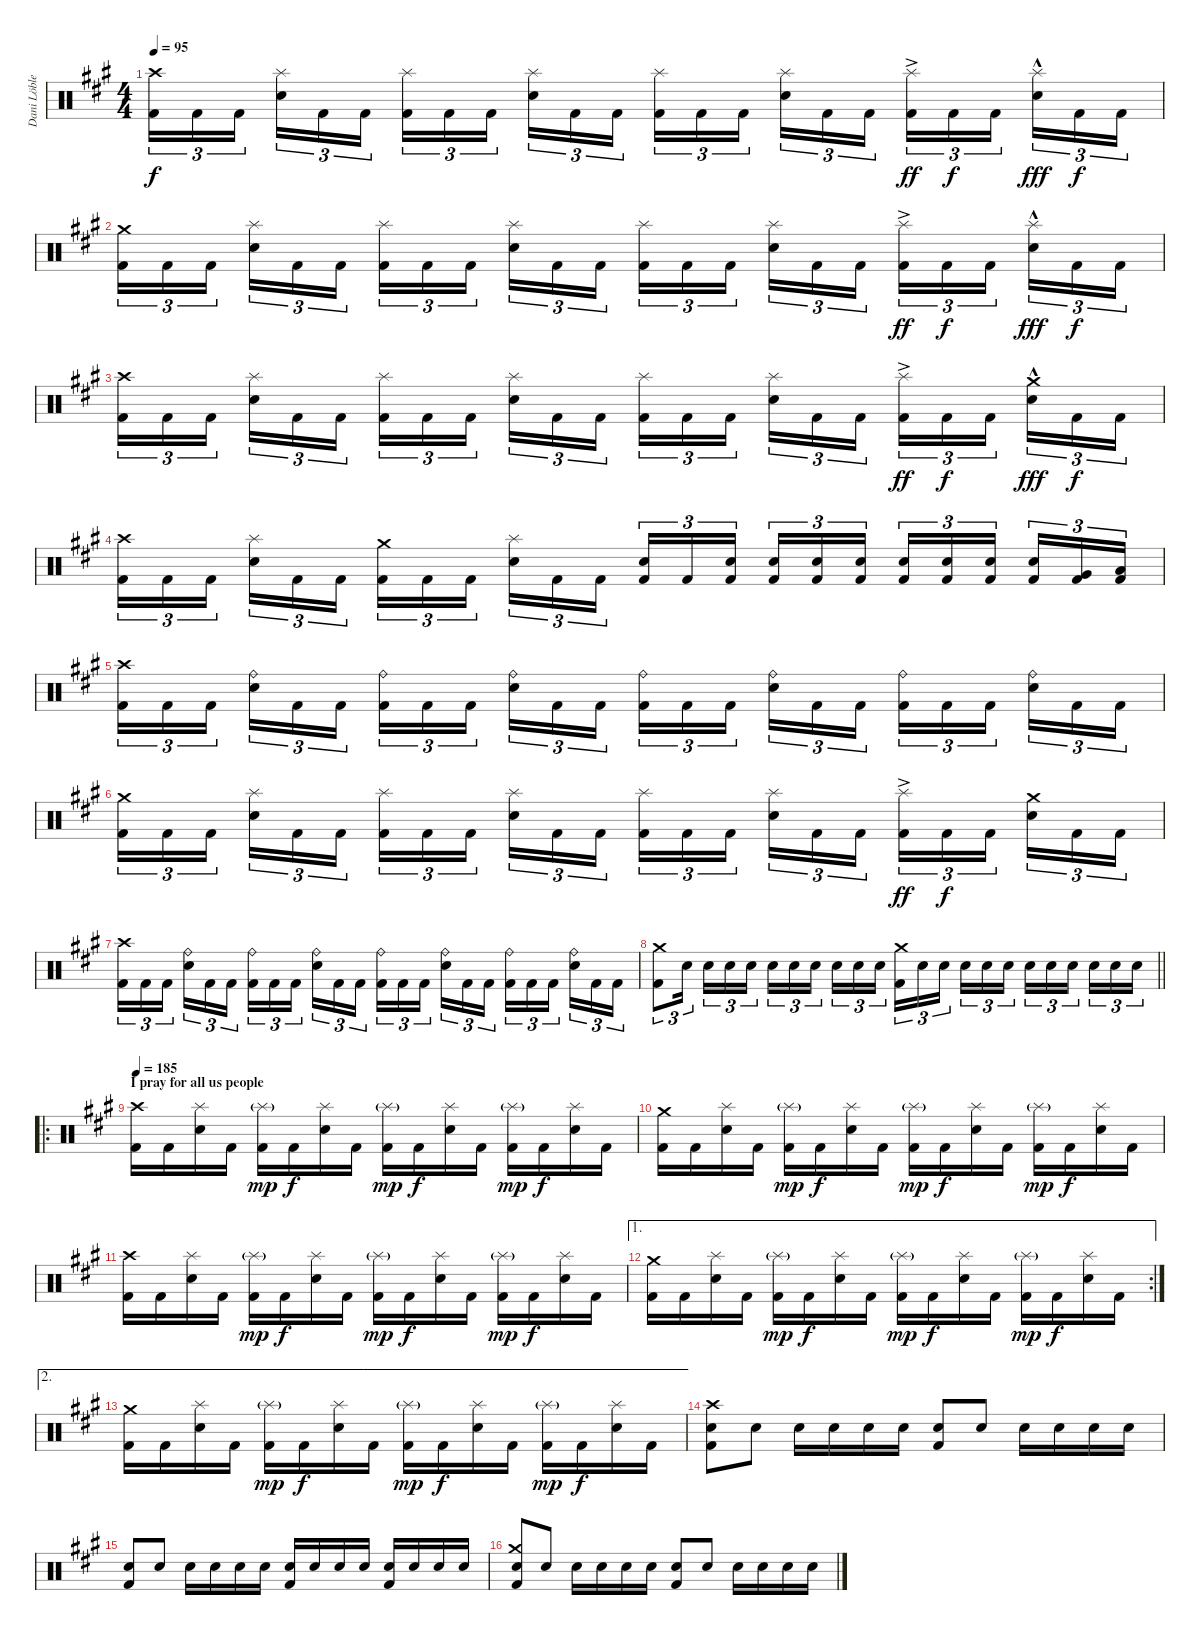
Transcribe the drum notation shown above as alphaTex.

\track ("Dani Löble" "Dani Löble") {instrument percussion}
\staff {score}
\articulation defaults
\ts (4 4)
\tempo 95
\clef neutral
\ks f#minor
("Crash high (hit)" "Kick (hit) 2").16{tu (3 2) dy f} "Kick (hit) 2".16{tu (3 2)} "Kick (hit) 2".16{tu (3 2) beam splitsecondary} ("Splash (hit)" "Snare (hit) 2").16{tu (3 2)} "Kick (hit) 2".16{tu (3 2)} "Kick (hit) 2".16{tu (3 2)} ("Splash (hit)" "Kick (hit) 2").16{tu (3 2)} "Kick (hit) 2".16{tu (3 2)} "Kick (hit) 2".16{tu (3 2) beam splitsecondary} ("Splash (hit)" "Snare (hit) 2").16{tu (3 2)} "Kick (hit) 2".16{tu (3 2)} "Kick (hit) 2".16{tu (3 2)} ("Splash (hit)" "Kick (hit) 2").16{tu (3 2)} "Kick (hit) 2".16{tu (3 2)} "Kick (hit) 2".16{tu (3 2) beam splitsecondary} ("Splash (hit)" "Snare (hit) 2").16{tu (3 2)} "Kick (hit) 2".16{tu (3 2)} "Kick (hit) 2".16{tu (3 2)} ("Splash (hit)"{ac} "Kick (hit) 2").16{tu (3 2) dy ff} "Kick (hit) 2".16{tu (3 2) dy f} "Kick (hit) 2".16{tu (3 2) beam splitsecondary} ("Splash (hit)"{hac} "Snare (hit) 2").16{tu (3 2) dy fff} "Kick (hit) 2".16{tu (3 2) dy f} "Kick (hit) 2".16{tu (3 2)} |
("Crash medium (hit)" "Kick (hit) 2").16{tu (3 2)} "Kick (hit) 2".16{tu (3 2)} "Kick (hit) 2".16{tu (3 2) beam splitsecondary} ("Splash (hit)" "Snare (hit) 2").16{tu (3 2)} "Kick (hit) 2".16{tu (3 2)} "Kick (hit) 2".16{tu (3 2)} ("Splash (hit)" "Kick (hit) 2").16{tu (3 2)} "Kick (hit) 2".16{tu (3 2)} "Kick (hit) 2".16{tu (3 2) beam splitsecondary} ("Splash (hit)" "Snare (hit) 2").16{tu (3 2)} "Kick (hit) 2".16{tu (3 2)} "Kick (hit) 2".16{tu (3 2)} ("Splash (hit)" "Kick (hit) 2").16{tu (3 2)} "Kick (hit) 2".16{tu (3 2)} "Kick (hit) 2".16{tu (3 2) beam splitsecondary} ("Splash (hit)" "Snare (hit) 2").16{tu (3 2)} "Kick (hit) 2".16{tu (3 2)} "Kick (hit) 2".16{tu (3 2)} ("Splash (hit)"{ac} "Kick (hit) 2").16{tu (3 2) dy ff} "Kick (hit) 2".16{tu (3 2) dy f} "Kick (hit) 2".16{tu (3 2) beam splitsecondary} ("Splash (hit)"{hac} "Snare (hit) 2").16{tu (3 2) dy fff} "Kick (hit) 2".16{tu (3 2) dy f} "Kick (hit) 2".16{tu (3 2)} |
("Crash high (hit)" "Kick (hit) 2").16{tu (3 2)} "Kick (hit) 2".16{tu (3 2)} "Kick (hit) 2".16{tu (3 2) beam splitsecondary} ("Splash (hit)" "Snare (hit) 2").16{tu (3 2)} "Kick (hit) 2".16{tu (3 2)} "Kick (hit) 2".16{tu (3 2)} ("Splash (hit)" "Kick (hit) 2").16{tu (3 2)} "Kick (hit) 2".16{tu (3 2)} "Kick (hit) 2".16{tu (3 2) beam splitsecondary} ("Splash (hit)" "Snare (hit) 2").16{tu (3 2)} "Kick (hit) 2".16{tu (3 2)} "Kick (hit) 2".16{tu (3 2)} ("Splash (hit)" "Kick (hit) 2").16{tu (3 2)} "Kick (hit) 2".16{tu (3 2)} "Kick (hit) 2".16{tu (3 2) beam splitsecondary} ("Splash (hit)" "Snare (hit) 2").16{tu (3 2)} "Kick (hit) 2".16{tu (3 2)} "Kick (hit) 2".16{tu (3 2)} ("Splash (hit)"{ac} "Kick (hit) 2").16{tu (3 2) dy ff} "Kick (hit) 2".16{tu (3 2) dy f} "Kick (hit) 2".16{tu (3 2) beam splitsecondary} ("Crash medium (hit)"{hac} "Snare (hit) 2").16{tu (3 2) dy fff} "Kick (hit) 2".16{tu (3 2) dy f} "Kick (hit) 2".16{tu (3 2)} |
("Crash high (hit)" "Kick (hit) 2").16{tu (3 2)} "Kick (hit) 2".16{tu (3 2)} "Kick (hit) 2".16{tu (3 2) beam splitsecondary} ("Splash (hit)" "Snare (hit) 2").16{tu (3 2)} "Kick (hit) 2".16{tu (3 2)} "Kick (hit) 2".16{tu (3 2)} ("Crash medium (hit)" "Kick (hit) 2").16{tu (3 2)} "Kick (hit) 2".16{tu (3 2)} "Kick (hit) 2".16{tu (3 2) beam splitsecondary} ("Splash (hit)" "Snare (hit) 2").16{tu (3 2)} "Kick (hit) 2".16{tu (3 2)} "Kick (hit) 2".16{tu (3 2)} ("Snare (hit) 2" "Kick (hit) 2").16{tu (3 2)} "Kick (hit) 2".16{tu (3 2)} ("Snare (hit) 2" "Kick (hit) 2").16{tu (3 2) beam splitsecondary} ("Snare (hit) 2" "Kick (hit) 2").16{tu (3 2)} ("Snare (hit) 2" "Kick (hit) 2").16{tu (3 2)} ("Snare (hit) 2" "Kick (hit) 2").16{tu (3 2)} ("Snare (hit) 2" "Kick (hit) 2").16{tu (3 2)} ("Snare (hit) 2" "Kick (hit) 2").16{tu (3 2)} ("Snare (hit) 2" "Kick (hit) 2").16{tu (3 2) beam splitsecondary} ("Snare (hit) 2" "Kick (hit) 2").16{tu (3 2)} ("Very Low Tom (hit)" "Kick (hit) 2").16{tu (3 2)} ("Low Floor Tom (hit)" "Kick (hit) 2").16{tu (3 2)} |
("Crash high (hit)" "Kick (hit) 2").16{tu (3 2)} "Kick (hit) 2".16{tu (3 2)} "Kick (hit) 2".16{tu (3 2) beam splitsecondary} ("Ride (bell)" "Snare (hit) 2").16{tu (3 2)} "Kick (hit) 2".16{tu (3 2)} "Kick (hit) 2".16{tu (3 2)} ("Ride (bell)" "Kick (hit) 2").16{tu (3 2)} "Kick (hit) 2".16{tu (3 2)} "Kick (hit) 2".16{tu (3 2) beam splitsecondary} ("Ride (bell)" "Snare (hit) 2").16{tu (3 2)} "Kick (hit) 2".16{tu (3 2)} "Kick (hit) 2".16{tu (3 2)} ("Ride (bell)" "Kick (hit) 2").16{tu (3 2)} "Kick (hit) 2".16{tu (3 2)} "Kick (hit) 2".16{tu (3 2) beam splitsecondary} ("Ride (bell)" "Snare (hit) 2").16{tu (3 2)} "Kick (hit) 2".16{tu (3 2)} "Kick (hit) 2".16{tu (3 2)} ("Ride (bell)" "Kick (hit) 2").16{tu (3 2)} "Kick (hit) 2".16{tu (3 2)} "Kick (hit) 2".16{tu (3 2) beam splitsecondary} ("Ride (bell)" "Snare (hit) 2").16{tu (3 2)} "Kick (hit) 2".16{tu (3 2)} "Kick (hit) 2".16{tu (3 2)} |
("Crash medium (hit)" "Kick (hit) 2").16{tu (3 2)} "Kick (hit) 2".16{tu (3 2)} "Kick (hit) 2".16{tu (3 2) beam splitsecondary} ("Splash (hit)" "Snare (hit) 2").16{tu (3 2)} "Kick (hit) 2".16{tu (3 2)} "Kick (hit) 2".16{tu (3 2)} ("Splash (hit)" "Kick (hit) 2").16{tu (3 2)} "Kick (hit) 2".16{tu (3 2)} "Kick (hit) 2".16{tu (3 2) beam splitsecondary} ("Splash (hit)" "Snare (hit) 2").16{tu (3 2)} "Kick (hit) 2".16{tu (3 2)} "Kick (hit) 2".16{tu (3 2)} ("Splash (hit)" "Kick (hit) 2").16{tu (3 2)} "Kick (hit) 2".16{tu (3 2)} "Kick (hit) 2".16{tu (3 2) beam splitsecondary} ("Splash (hit)" "Snare (hit) 2").16{tu (3 2)} "Kick (hit) 2".16{tu (3 2)} "Kick (hit) 2".16{tu (3 2)} ("Splash (hit)"{ac} "Kick (hit) 2").16{tu (3 2) dy ff} "Kick (hit) 2".16{tu (3 2) dy f} "Kick (hit) 2".16{tu (3 2) beam splitsecondary} ("Crash medium (hit)" "Snare (hit) 2").16{tu (3 2)} "Kick (hit) 2".16{tu (3 2)} "Kick (hit) 2".16{tu (3 2)} |
("Crash high (hit)" "Kick (hit) 2").16{tu (3 2)} "Kick (hit) 2".16{tu (3 2)} "Kick (hit) 2".16{tu (3 2) beam splitsecondary} ("Ride (bell)" "Snare (hit) 2").16{tu (3 2)} "Kick (hit) 2".16{tu (3 2)} "Kick (hit) 2".16{tu (3 2)} ("Ride (bell)" "Kick (hit) 2").16{tu (3 2)} "Kick (hit) 2".16{tu (3 2)} "Kick (hit) 2".16{tu (3 2) beam splitsecondary} ("Ride (bell)" "Snare (hit) 2").16{tu (3 2)} "Kick (hit) 2".16{tu (3 2)} "Kick (hit) 2".16{tu (3 2)} ("Ride (bell)" "Kick (hit) 2").16{tu (3 2)} "Kick (hit) 2".16{tu (3 2)} "Kick (hit) 2".16{tu (3 2) beam splitsecondary} ("Ride (bell)" "Snare (hit) 2").16{tu (3 2)} "Kick (hit) 2".16{tu (3 2)} "Kick (hit) 2".16{tu (3 2)} ("Ride (bell)" "Kick (hit) 2").16{tu (3 2)} "Kick (hit) 2".16{tu (3 2)} "Kick (hit) 2".16{tu (3 2) beam splitsecondary} ("Ride (bell)" "Snare (hit) 2").16{tu (3 2)} "Kick (hit) 2".16{tu (3 2)} "Kick (hit) 2".16{tu (3 2)} |
\barLineRight lightlight
("Crash medium (hit)" "Kick (hit) 2").8{tu (3 2)} "Electric Snare (hit)".16{tu (3 2) beam splitsecondary} "Electric Snare (hit)".16{tu (3 2)} "Electric Snare (hit)".16{tu (3 2)} "Electric Snare (hit)".16{tu (3 2)} "Electric Snare (hit)".16{tu (3 2)} "Electric Snare (hit)".16{tu (3 2)} "Electric Snare (hit)".16{tu (3 2) beam splitsecondary} "Electric Snare (hit)".16{tu (3 2)} "Electric Snare (hit)".16{tu (3 2)} "Electric Snare (hit)".16{tu (3 2)} ("Crash medium (hit)" "Kick (hit) 2").16{tu (3 2)} "Electric Snare (hit)".16{tu (3 2)} "Electric Snare (hit)".16{tu (3 2) beam splitsecondary} "Electric Snare (hit)".16{tu (3 2)} "Electric Snare (hit)".16{tu (3 2)} "Electric Snare (hit)".16{tu (3 2)} "Electric Snare (hit)".16{tu (3 2)} "Electric Snare (hit)".16{tu (3 2)} "Electric Snare (hit)".16{tu (3 2) beam splitsecondary} "Electric Snare (hit)".16{tu (3 2)} "Electric Snare (hit)".16{tu (3 2)} "Electric Snare (hit)".16{tu (3 2)} |
\ro
\section ("" "I pray for all us people")
\tempo 198
\tempo 185
("Crash high (hit)" "Kick (hit) 2").16 "Kick (hit) 2".16 ("Splash (hit)" "Snare (hit) 2").16 "Kick (hit) 2".16 ("Splash (hit)"{g} "Kick (hit) 2").16{dy mp} "Kick (hit) 2".16{dy f} ("Splash (hit)" "Snare (hit) 2").16 "Kick (hit) 2".16 ("Splash (hit)"{g} "Kick (hit) 2").16{dy mp} "Kick (hit) 2".16{dy f} ("Splash (hit)" "Snare (hit) 2").16 "Kick (hit) 2".16 ("Splash (hit)"{g} "Kick (hit) 2").16{dy mp} "Kick (hit) 2".16{dy f} ("Splash (hit)" "Snare (hit) 2").16 "Kick (hit) 2".16 |
("Crash medium (hit)" "Kick (hit) 2").16 "Kick (hit) 2".16 ("Splash (hit)" "Snare (hit) 2").16 "Kick (hit) 2".16 ("Splash (hit)"{g} "Kick (hit) 2").16{dy mp} "Kick (hit) 2".16{dy f} ("Splash (hit)" "Snare (hit) 2").16 "Kick (hit) 2".16 ("Splash (hit)"{g} "Kick (hit) 2").16{dy mp} "Kick (hit) 2".16{dy f} ("Splash (hit)" "Snare (hit) 2").16 "Kick (hit) 2".16 ("Splash (hit)"{g} "Kick (hit) 2").16{dy mp} "Kick (hit) 2".16{dy f} ("Splash (hit)" "Snare (hit) 2").16 "Kick (hit) 2".16 |
("Crash high (hit)" "Kick (hit) 2").16 "Kick (hit) 2".16 ("Splash (hit)" "Snare (hit) 2").16 "Kick (hit) 2".16 ("Splash (hit)"{g} "Kick (hit) 2").16{dy mp} "Kick (hit) 2".16{dy f} ("Splash (hit)" "Snare (hit) 2").16 "Kick (hit) 2".16 ("Splash (hit)"{g} "Kick (hit) 2").16{dy mp} "Kick (hit) 2".16{dy f} ("Splash (hit)" "Snare (hit) 2").16 "Kick (hit) 2".16 ("Splash (hit)"{g} "Kick (hit) 2").16{dy mp} "Kick (hit) 2".16{dy f} ("Splash (hit)" "Snare (hit) 2").16 "Kick (hit) 2".16 |
\ae 1
\rc 2
("Crash medium (hit)" "Kick (hit) 2").16 "Kick (hit) 2".16 ("Splash (hit)" "Snare (hit) 2").16 "Kick (hit) 2".16 ("Splash (hit)"{g} "Kick (hit) 2").16{dy mp} "Kick (hit) 2".16{dy f} ("Splash (hit)" "Snare (hit) 2").16 "Kick (hit) 2".16 ("Splash (hit)"{g} "Kick (hit) 2").16{dy mp} "Kick (hit) 2".16{dy f} ("Splash (hit)" "Snare (hit) 2").16 "Kick (hit) 2".16 ("Splash (hit)"{g} "Kick (hit) 2").16{dy mp} "Kick (hit) 2".16{dy f} ("Splash (hit)" "Snare (hit) 2").16 "Kick (hit) 2".16 |
\ae 2
("Crash medium (hit)" "Kick (hit) 2").16 "Kick (hit) 2".16 ("Splash (hit)" "Snare (hit) 2").16 "Kick (hit) 2".16 ("Splash (hit)"{g} "Kick (hit) 2").16{dy mp} "Kick (hit) 2".16{dy f} ("Splash (hit)" "Snare (hit) 2").16 "Kick (hit) 2".16 ("Splash (hit)"{g} "Kick (hit) 2").16{dy mp} "Kick (hit) 2".16{dy f} ("Splash (hit)" "Snare (hit) 2").16 "Kick (hit) 2".16 ("Splash (hit)"{g} "Kick (hit) 2").16{dy mp} "Kick (hit) 2".16{dy f} ("Splash (hit)" "Snare (hit) 2").16 "Kick (hit) 2".16 |
("Crash high (hit)" "Electric Snare (hit)" "Kick (hit) 2").8 "Electric Snare (hit)".8 "Electric Snare (hit)".16 "Electric Snare (hit)".16 "Electric Snare (hit)".16 "Electric Snare (hit)".16 ("Electric Snare (hit)" "Kick (hit) 2").8 "Electric Snare (hit)".8 "Electric Snare (hit)".16 "Electric Snare (hit)".16 "Electric Snare (hit)".16 "Electric Snare (hit)".16 |
("Electric Snare (hit)" "Kick (hit) 2").8 "Electric Snare (hit)".8 "Electric Snare (hit)".16 "Electric Snare (hit)".16 "Electric Snare (hit)".16 "Electric Snare (hit)".16 ("Electric Snare (hit)" "Kick (hit) 2").16 "Electric Snare (hit)".16 "Electric Snare (hit)".16 "Electric Snare (hit)".16 ("Electric Snare (hit)" "Kick (hit) 2").16 "Electric Snare (hit)".16 "Electric Snare (hit)".16 "Electric Snare (hit)".16 |
("Crash medium (hit)" "Electric Snare (hit)" "Kick (hit) 2").8 "Electric Snare (hit)".8 "Electric Snare (hit)".16 "Electric Snare (hit)".16 "Electric Snare (hit)".16 "Electric Snare (hit)".16 ("Electric Snare (hit)" "Kick (hit) 2").8 "Electric Snare (hit)".8 "Electric Snare (hit)".16 "Electric Snare (hit)".16 "Electric Snare (hit)".16 "Electric Snare (hit)".16
